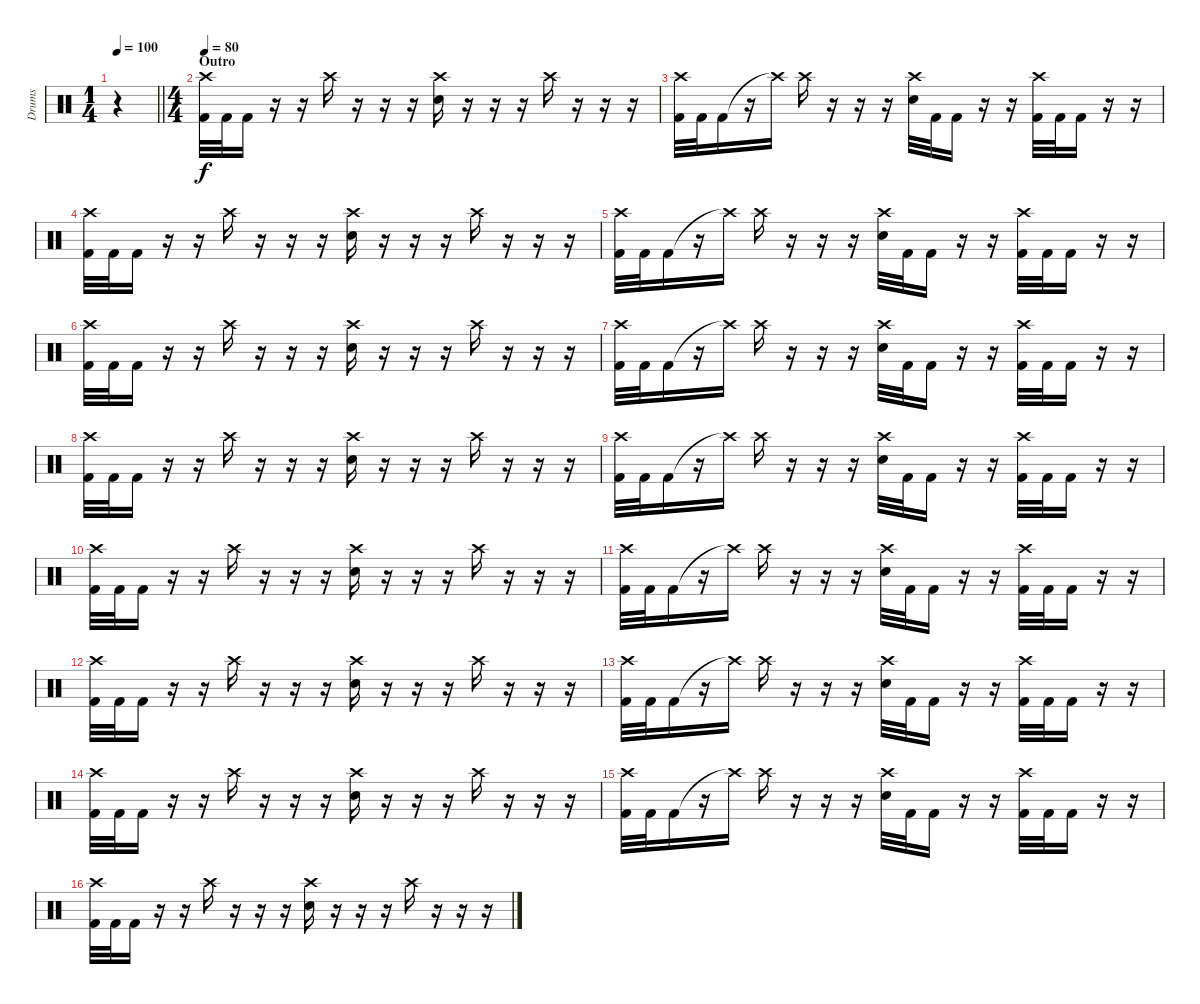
\track ("Drums" "Drums") {instrument percussion}
\staff {score}
\articulation defaults
\ts (1 4)
\tempo 100
\clef neutral
\barLineRight lightlight
\ks c
r.4{dy f} |
\ts (4 4)
\section ("" "Outro")
\tempo 80
("Crash high (hit)" "Kick (hit) 2").32 "Kick (hit) 2".32 "Kick (hit) 2".16 r.16 r.16 "Crash high (hit)".16 r.16 r.16 r.16 ("Crash high (hit)" "Snare (hit) 2").16 r.16 r.16 r.16 "Crash high (hit)".16 r.16 r.16 r.16 |
("Crash high (hit)" "Kick (hit) 2").32 "Kick (hit) 2".32 "Kick (hit) 2".16 r.16 "Crash high (hit)"{t}.16 "Crash high (hit)".16 r.16 r.16 r.16 ("Crash high (hit)" "Snare (hit) 2").32 "Kick (hit) 2".32 "Kick (hit) 2".16 r.16 r.16 ("Crash high (hit)" "Kick (hit) 2").32 "Kick (hit) 2".32 "Kick (hit) 2".16 r.16 r.16 |
("Crash high (hit)" "Kick (hit) 2").32 "Kick (hit) 2".32 "Kick (hit) 2".16 r.16 r.16 "Crash high (hit)".16 r.16 r.16 r.16 ("Crash high (hit)" "Snare (hit) 2").16 r.16 r.16 r.16 "Crash high (hit)".16 r.16 r.16 r.16 |
("Crash high (hit)" "Kick (hit) 2").32 "Kick (hit) 2".32 "Kick (hit) 2".16 r.16 "Crash high (hit)"{t}.16 "Crash high (hit)".16 r.16 r.16 r.16 ("Crash high (hit)" "Snare (hit) 2").32 "Kick (hit) 2".32 "Kick (hit) 2".16 r.16 r.16 ("Crash high (hit)" "Kick (hit) 2").32 "Kick (hit) 2".32 "Kick (hit) 2".16 r.16 r.16 |
("Crash high (hit)" "Kick (hit) 2").32 "Kick (hit) 2".32 "Kick (hit) 2".16 r.16 r.16 "Crash high (hit)".16 r.16 r.16 r.16 ("Crash high (hit)" "Snare (hit) 2").16 r.16 r.16 r.16 "Crash high (hit)".16 r.16 r.16 r.16 |
("Crash high (hit)" "Kick (hit) 2").32 "Kick (hit) 2".32 "Kick (hit) 2".16 r.16 "Crash high (hit)"{t}.16 "Crash high (hit)".16 r.16 r.16 r.16 ("Crash high (hit)" "Snare (hit) 2").32 "Kick (hit) 2".32 "Kick (hit) 2".16 r.16 r.16 ("Crash high (hit)" "Kick (hit) 2").32 "Kick (hit) 2".32 "Kick (hit) 2".16 r.16 r.16 |
("Crash high (hit)" "Kick (hit) 2").32 "Kick (hit) 2".32 "Kick (hit) 2".16 r.16 r.16 "Crash high (hit)".16 r.16 r.16 r.16 ("Crash high (hit)" "Snare (hit) 2").16 r.16 r.16 r.16 "Crash high (hit)".16 r.16 r.16 r.16 |
("Crash high (hit)" "Kick (hit) 2").32 "Kick (hit) 2".32 "Kick (hit) 2".16 r.16 "Crash high (hit)"{t}.16 "Crash high (hit)".16 r.16 r.16 r.16 ("Crash high (hit)" "Snare (hit) 2").32 "Kick (hit) 2".32 "Kick (hit) 2".16 r.16 r.16 ("Crash high (hit)" "Kick (hit) 2").32 "Kick (hit) 2".32 "Kick (hit) 2".16 r.16 r.16 |
("Crash high (hit)" "Kick (hit) 2").32 "Kick (hit) 2".32 "Kick (hit) 2".16 r.16 r.16 "Crash high (hit)".16 r.16 r.16 r.16 ("Crash high (hit)" "Snare (hit) 2").16 r.16 r.16 r.16 "Crash high (hit)".16 r.16 r.16 r.16 |
("Crash high (hit)" "Kick (hit) 2").32 "Kick (hit) 2".32 "Kick (hit) 2".16 r.16 "Crash high (hit)"{t}.16 "Crash high (hit)".16 r.16 r.16 r.16 ("Crash high (hit)" "Snare (hit) 2").32 "Kick (hit) 2".32 "Kick (hit) 2".16 r.16 r.16 ("Crash high (hit)" "Kick (hit) 2").32 "Kick (hit) 2".32 "Kick (hit) 2".16 r.16 r.16 |
("Crash high (hit)" "Kick (hit) 2").32 "Kick (hit) 2".32 "Kick (hit) 2".16 r.16 r.16 "Crash high (hit)".16 r.16 r.16 r.16 ("Crash high (hit)" "Snare (hit) 2").16 r.16 r.16 r.16 "Crash high (hit)".16 r.16 r.16 r.16 |
("Crash high (hit)" "Kick (hit) 2").32 "Kick (hit) 2".32 "Kick (hit) 2".16 r.16 "Crash high (hit)"{t}.16 "Crash high (hit)".16 r.16 r.16 r.16 ("Crash high (hit)" "Snare (hit) 2").32 "Kick (hit) 2".32 "Kick (hit) 2".16 r.16 r.16 ("Crash high (hit)" "Kick (hit) 2").32 "Kick (hit) 2".32 "Kick (hit) 2".16 r.16 r.16 |
("Crash high (hit)" "Kick (hit) 2").32 "Kick (hit) 2".32 "Kick (hit) 2".16 r.16 r.16 "Crash high (hit)".16 r.16 r.16 r.16 ("Crash high (hit)" "Snare (hit) 2").16 r.16 r.16 r.16 "Crash high (hit)".16 r.16 r.16 r.16 |
("Crash high (hit)" "Kick (hit) 2").32 "Kick (hit) 2".32 "Kick (hit) 2".16 r.16 "Crash high (hit)"{t}.16 "Crash high (hit)".16 r.16 r.16 r.16 ("Crash high (hit)" "Snare (hit) 2").32 "Kick (hit) 2".32 "Kick (hit) 2".16 r.16 r.16 ("Crash high (hit)" "Kick (hit) 2").32 "Kick (hit) 2".32 "Kick (hit) 2".16 r.16 r.16 |
("Crash high (hit)" "Kick (hit) 2").32 "Kick (hit) 2".32 "Kick (hit) 2".16 r.16 r.16 "Crash high (hit)".16 r.16 r.16 r.16 ("Crash high (hit)" "Snare (hit) 2").16 r.16 r.16 r.16 "Crash high (hit)".16 r.16 r.16 r.16
